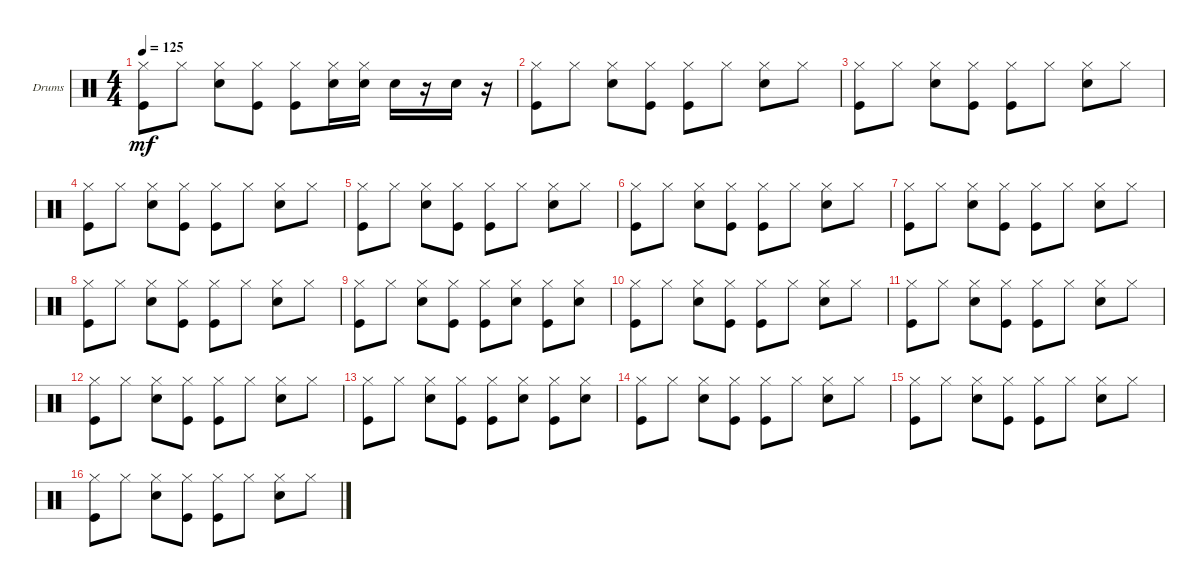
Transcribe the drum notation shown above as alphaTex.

\defaultSystemsLayout 4
\bracketExtendMode groupsimilarinstruments
\firstSystemTrackNameOrientation horizontal
\otherSystemsTrackNameOrientation horizontal
\track ("Drumkit" "Drums") {instrument percussion}
\staff {score}
\articulation defaults
\ts (4 4)
\tempo 125
\clef neutral
\ks c
("Hi-Hat (closed)" "Kick (hit)").8{dy mf} "Hi-Hat (closed)".8 ("Hi-Hat (closed)" "Snare (hit) 2").8 ("Hi-Hat (closed)" "Kick (hit)").8 ("Hi-Hat (closed)" "Kick (hit)").8 ("Hi-Hat (closed)" "Snare (hit) 2").16 ("Hi-Hat (closed)" "Snare (hit) 2").16 "Snare (hit) 2".16 r.16 "Snare (hit) 2".16 r.16 |
("Hi-Hat (closed)" "Kick (hit)").8 "Hi-Hat (closed)".8 ("Hi-Hat (closed)" "Snare (hit) 2").8 ("Hi-Hat (closed)" "Kick (hit)").8 ("Hi-Hat (closed)" "Kick (hit)").8 "Hi-Hat (closed)".8 ("Hi-Hat (closed)" "Snare (hit) 2").8 "Hi-Hat (closed)".8 |
("Hi-Hat (closed)" "Kick (hit)").8 "Hi-Hat (closed)".8 ("Hi-Hat (closed)" "Snare (hit) 2").8 ("Hi-Hat (closed)" "Kick (hit)").8 ("Hi-Hat (closed)" "Kick (hit)").8 "Hi-Hat (closed)".8 ("Hi-Hat (closed)" "Snare (hit) 2").8 "Hi-Hat (closed)".8 |
("Hi-Hat (closed)" "Kick (hit)").8 "Hi-Hat (closed)".8 ("Hi-Hat (closed)" "Snare (hit) 2").8 ("Hi-Hat (closed)" "Kick (hit)").8 ("Hi-Hat (closed)" "Kick (hit)").8 "Hi-Hat (closed)".8 ("Hi-Hat (closed)" "Snare (hit) 2").8 "Hi-Hat (closed)".8 |
("Hi-Hat (closed)" "Kick (hit)").8 "Hi-Hat (closed)".8 ("Hi-Hat (closed)" "Snare (hit) 2").8 ("Hi-Hat (closed)" "Kick (hit)").8 ("Hi-Hat (closed)" "Kick (hit)").8 "Hi-Hat (closed)".8 ("Hi-Hat (closed)" "Snare (hit) 2").8 "Hi-Hat (closed)".8 |
("Hi-Hat (closed)" "Kick (hit)").8 "Hi-Hat (closed)".8 ("Hi-Hat (closed)" "Snare (hit) 2").8 ("Hi-Hat (closed)" "Kick (hit)").8 ("Hi-Hat (closed)" "Kick (hit)").8 "Hi-Hat (closed)".8 ("Hi-Hat (closed)" "Snare (hit) 2").8 "Hi-Hat (closed)".8 |
("Hi-Hat (closed)" "Kick (hit)").8 "Hi-Hat (closed)".8 ("Hi-Hat (closed)" "Snare (hit) 2").8 ("Hi-Hat (closed)" "Kick (hit)").8 ("Hi-Hat (closed)" "Kick (hit)").8 "Hi-Hat (closed)".8 ("Hi-Hat (closed)" "Snare (hit) 2").8 "Hi-Hat (closed)".8 |
("Hi-Hat (closed)" "Kick (hit)").8 "Hi-Hat (closed)".8 ("Hi-Hat (closed)" "Snare (hit) 2").8 ("Hi-Hat (closed)" "Kick (hit)").8 ("Hi-Hat (closed)" "Kick (hit)").8 "Hi-Hat (closed)".8 ("Hi-Hat (closed)" "Snare (hit) 2").8 "Hi-Hat (closed)".8 |
("Hi-Hat (closed)" "Kick (hit)").8 "Hi-Hat (closed)".8 ("Hi-Hat (closed)" "Snare (hit) 2").8 ("Hi-Hat (closed)" "Kick (hit)").8 ("Kick (hit)" "Hi-Hat (closed)").8 ("Hi-Hat (closed)" "Snare (hit) 2").8 ("Kick (hit)" "Hi-Hat (closed)").8 ("Hi-Hat (closed)" "Snare (hit) 2").8 |
("Hi-Hat (closed)" "Kick (hit)").8 "Hi-Hat (closed)".8 ("Hi-Hat (closed)" "Snare (hit) 2").8 ("Hi-Hat (closed)" "Kick (hit)").8 ("Hi-Hat (closed)" "Kick (hit)").8 "Hi-Hat (closed)".8 ("Hi-Hat (closed)" "Snare (hit) 2").8 "Hi-Hat (closed)".8 |
("Hi-Hat (closed)" "Kick (hit)").8 "Hi-Hat (closed)".8 ("Hi-Hat (closed)" "Snare (hit) 2").8 ("Hi-Hat (closed)" "Kick (hit)").8 ("Hi-Hat (closed)" "Kick (hit)").8 "Hi-Hat (closed)".8 ("Hi-Hat (closed)" "Snare (hit) 2").8 "Hi-Hat (closed)".8 |
("Hi-Hat (closed)" "Kick (hit)").8 "Hi-Hat (closed)".8 ("Hi-Hat (closed)" "Snare (hit) 2").8 ("Hi-Hat (closed)" "Kick (hit)").8 ("Hi-Hat (closed)" "Kick (hit)").8 "Hi-Hat (closed)".8 ("Hi-Hat (closed)" "Snare (hit) 2").8 "Hi-Hat (closed)".8 |
("Hi-Hat (closed)" "Kick (hit)").8 "Hi-Hat (closed)".8 ("Hi-Hat (closed)" "Snare (hit) 2").8 ("Hi-Hat (closed)" "Kick (hit)").8 ("Kick (hit)" "Hi-Hat (closed)").8 ("Hi-Hat (closed)" "Snare (hit) 2").8 ("Kick (hit)" "Hi-Hat (closed)").8 ("Hi-Hat (closed)" "Snare (hit) 2").8 |
("Hi-Hat (closed)" "Kick (hit)").8 "Hi-Hat (closed)".8 ("Hi-Hat (closed)" "Snare (hit) 2").8 ("Hi-Hat (closed)" "Kick (hit)").8 ("Hi-Hat (closed)" "Kick (hit)").8 "Hi-Hat (closed)".8 ("Hi-Hat (closed)" "Snare (hit) 2").8 "Hi-Hat (closed)".8 |
("Hi-Hat (closed)" "Kick (hit)").8 "Hi-Hat (closed)".8 ("Hi-Hat (closed)" "Snare (hit) 2").8 ("Hi-Hat (closed)" "Kick (hit)").8 ("Hi-Hat (closed)" "Kick (hit)").8 "Hi-Hat (closed)".8 ("Hi-Hat (closed)" "Snare (hit) 2").8 "Hi-Hat (closed)".8 |
("Hi-Hat (closed)" "Kick (hit)").8 "Hi-Hat (closed)".8 ("Hi-Hat (closed)" "Snare (hit) 2").8 ("Hi-Hat (closed)" "Kick (hit)").8 ("Hi-Hat (closed)" "Kick (hit)").8 "Hi-Hat (closed)".8 ("Hi-Hat (closed)" "Snare (hit) 2").8 "Hi-Hat (closed)".8
